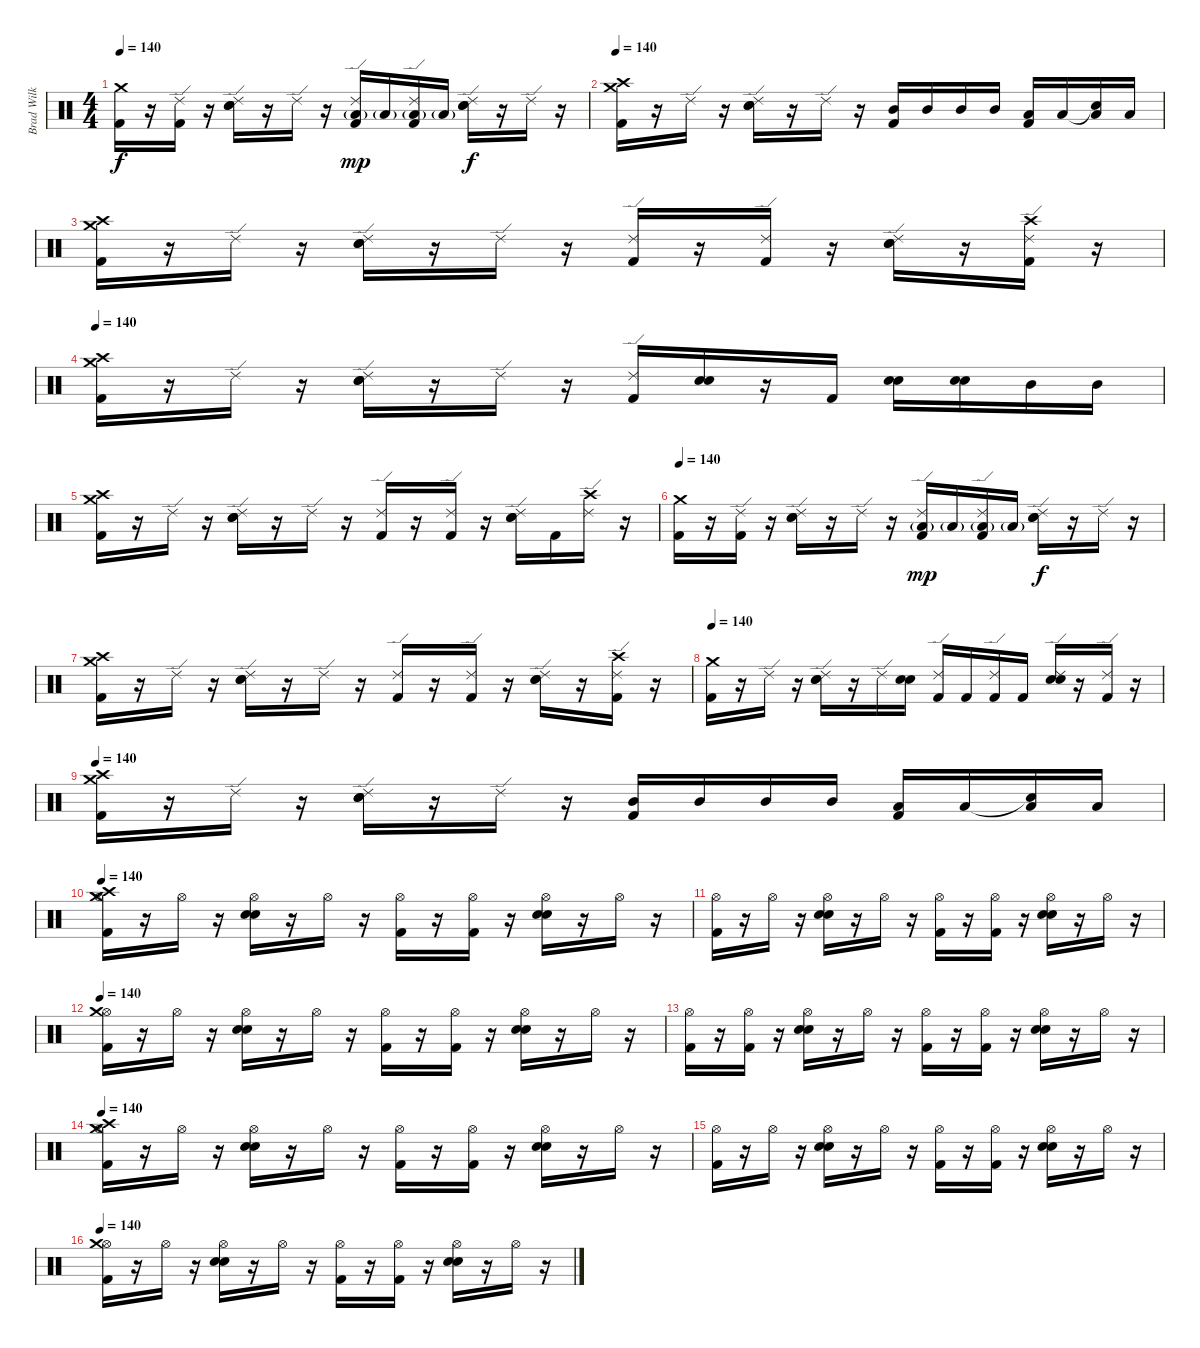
\track ("Brad Wilk" "Brad Wilk") {instrument percussion}
\staff {score}
\articulation defaults
\ts (4 4)
\tempo 140
\clef neutral
\ks c
("Crash medium (hit)" "Kick (hit) 2").16{dy f} r.16 ("Ride (edge) 2" "Kick (hit) 2").16 r.16 ("Ride (edge) 2" "Electric Snare (hit)" "Snare (hit) 2").16 r.16 "Ride (edge) 2".16 r.16 ("Ride (edge) 2" "Low Tom (hit)"{g} "Kick (hit) 2").16{dy mp} "Low Tom (hit)"{g}.16 ("Ride (edge) 2" "Low Tom (hit)"{g} "Kick (hit) 2").16 "Low Tom (hit)"{g}.16 ("Ride (edge) 2" "Electric Snare (hit)" "Snare (hit) 2").16{dy f} r.16 "Ride (edge) 2".16 r.16 |
\tempo 140
("Crash medium (hit)" "Crash high (hit)" "Kick (hit) 2").16 r.16 "Ride (edge) 2".16 r.16 ("Ride (edge) 2" "Electric Snare (hit)" "Snare (hit) 2").16 r.16 "Ride (edge) 2".16 r.16 ("Mid Tom (hit)" "Kick (hit) 2").16 "Mid Tom (hit)".16 "Mid Tom (hit)".16 "Mid Tom (hit)".16 ("Low Tom (hit)" "Kick (hit) 2").16 "Low Tom (hit)".16 ("Snare (hit)"{t} "Low Tom (hit)").16 "Low Tom (hit)".16 |
("Crash medium (hit)" "Crash high (hit)" "Kick (hit) 2").16 r.16 "Ride (edge) 2".16 r.16 ("Ride (edge) 2" "Electric Snare (hit)" "Snare (hit) 2").16 r.16 "Ride (edge) 2".16 r.16 ("Ride (edge) 2" "Kick (hit) 2").16 r.16 ("Ride (edge) 2" "Kick (hit) 2").16 r.16 ("Ride (edge) 2" "Electric Snare (hit)" "Snare (hit) 2").16 r.16 ("Ride (edge) 2" "Crash high (hit)" "Kick (hit) 2").16 r.16 |
\tempo 140
("Crash medium (hit)" "Crash high (hit)" "Kick (hit) 2").16 r.16 "Ride (edge) 2".16 r.16 ("Ride (edge) 2" "Electric Snare (hit)" "Snare (hit) 2").16 r.16 "Ride (edge) 2".16 r.16 ("Ride (edge) 2" "Kick (hit) 2").16 ("Electric Snare (hit)" "Snare (hit) 2").16 r.16 "Kick (hit) 2".16 ("Electric Snare (hit)" "Snare (hit) 2").16 ("Electric Snare (hit)" "Electric Snare (hit)").16 "Mid Tom (hit)".16 "Mid Tom (hit)".16 |
("Crash medium (hit)" "Crash high (hit)" "Kick (hit) 2").16 r.16 "Ride (edge) 2".16 r.16 ("Ride (edge) 2" "Electric Snare (hit)" "Snare (hit) 2").16 r.16 "Ride (edge) 2".16 r.16 ("Ride (edge) 2" "Kick (hit) 2").16 r.16 ("Ride (edge) 2" "Kick (hit) 2").16 r.16 ("Ride (edge) 2" "Electric Snare (hit)" "Snare (hit) 2").16 "Kick (hit) 2".16 ("Ride (edge) 2" "Crash high (hit)").16 r.16 |
\tempo 140
("Crash medium (hit)" "Kick (hit) 2").16 r.16 ("Ride (edge) 2" "Kick (hit) 2").16 r.16 ("Ride (edge) 2" "Electric Snare (hit)" "Snare (hit) 2").16 r.16 "Ride (edge) 2".16 r.16 ("Ride (edge) 2" "Low Tom (hit)"{g} "Kick (hit) 2").16{dy mp} "Low Tom (hit)"{g}.16 ("Ride (edge) 2" "Low Tom (hit)"{g} "Kick (hit) 2").16 "Low Tom (hit)"{g}.16 ("Ride (edge) 2" "Electric Snare (hit)" "Snare (hit) 2").16{dy f} r.16 "Ride (edge) 2".16 r.16 |
("Crash medium (hit)" "Crash high (hit)" "Kick (hit) 2").16 r.16 "Ride (edge) 2".16 r.16 ("Ride (edge) 2" "Electric Snare (hit)" "Snare (hit) 2").16 r.16 "Ride (edge) 2".16 r.16 ("Ride (edge) 2" "Kick (hit) 2").16 r.16 ("Ride (edge) 2" "Kick (hit) 2").16 r.16 ("Ride (edge) 2" "Electric Snare (hit)" "Snare (hit) 2").16 r.16 ("Ride (edge) 2" "Crash high (hit)" "Kick (hit) 2").16 r.16 |
\tempo 140
("Crash medium (hit)" "Kick (hit) 2").16 r.16 "Ride (edge) 2".16 r.16 ("Ride (edge) 2" "Electric Snare (hit)" "Snare (hit) 2").16 r.16 "Ride (edge) 2".16 ("Electric Snare (hit)" "Snare (hit) 2").16 ("Ride (edge) 2" "Kick (hit) 2").16 "Kick (hit) 2".16 ("Ride (edge) 2" "Kick (hit) 2").16 "Kick (hit) 2".16 ("Ride (edge) 2" "Electric Snare (hit)" "Snare (hit) 2").16 r.16 ("Ride (edge) 2" "Kick (hit) 2").16 r.16 |
\tempo 140
("Crash medium (hit)" "Crash high (hit)" "Kick (hit) 2").16 r.16 "Ride (edge) 2".16 r.16 ("Ride (edge) 2" "Electric Snare (hit)" "Snare (hit) 2").16 r.16 "Ride (edge) 2".16 r.16 ("Mid Tom (hit)" "Kick (hit) 2").16 "Mid Tom (hit)".16 "Mid Tom (hit)".16 "Mid Tom (hit)".16 ("Low Tom (hit)" "Kick (hit) 2").16 "Low Tom (hit)".16 ("Snare (hit)"{t} "Low Tom (hit)").16 "Low Tom (hit)".16 |
\tempo 140
("Hi-Hat (open)" "Crash medium (hit)" "Crash high (hit)" "Kick (hit) 2").16 r.16 "Hi-Hat (open)".16 r.16 ("Hi-Hat (open)" "Electric Snare (hit)" "Snare (hit) 2").16 r.16 "Hi-Hat (open)".16 r.16 ("Hi-Hat (open)" "Kick (hit) 2").16 r.16 ("Hi-Hat (open)" "Kick (hit) 2").16 r.16 ("Hi-Hat (open)" "Electric Snare (hit)" "Snare (hit) 2").16 r.16 "Hi-Hat (open)".16 r.16 |
("Hi-Hat (open)" "Kick (hit) 2").16 r.16 "Hi-Hat (open)".16 r.16 ("Hi-Hat (open)" "Electric Snare (hit)" "Snare (hit) 2").16 r.16 "Hi-Hat (open)".16 r.16 ("Hi-Hat (open)" "Kick (hit) 2").16 r.16 ("Hi-Hat (open)" "Kick (hit) 2").16 r.16 ("Hi-Hat (open)" "Electric Snare (hit)" "Snare (hit) 2").16 r.16 "Hi-Hat (open)".16 r.16 |
\tempo 140
("Hi-Hat (open)" "Crash medium (hit)" "Kick (hit) 2").16 r.16 "Hi-Hat (open)".16 r.16 ("Hi-Hat (open)" "Electric Snare (hit)" "Snare (hit) 2").16 r.16 "Hi-Hat (open)".16 r.16 ("Hi-Hat (open)" "Kick (hit) 2").16 r.16 ("Hi-Hat (open)" "Kick (hit) 2").16 r.16 ("Hi-Hat (open)" "Electric Snare (hit)" "Snare (hit) 2").16 r.16 "Hi-Hat (open)".16 r.16 |
("Hi-Hat (open)" "Kick (hit) 2").16 r.16 ("Hi-Hat (open)" "Kick (hit) 2").16 r.16 ("Hi-Hat (open)" "Electric Snare (hit)" "Snare (hit) 2").16 r.16 "Hi-Hat (open)".16 r.16 ("Hi-Hat (open)" "Kick (hit) 2").16 r.16 ("Hi-Hat (open)" "Kick (hit) 2").16 r.16 ("Hi-Hat (open)" "Electric Snare (hit)" "Snare (hit) 2").16 r.16 "Hi-Hat (open)".16 r.16 |
\tempo 140
("Hi-Hat (open)" "Crash medium (hit)" "Crash high (hit)" "Kick (hit) 2").16 r.16 "Hi-Hat (open)".16 r.16 ("Hi-Hat (open)" "Electric Snare (hit)" "Snare (hit) 2").16 r.16 "Hi-Hat (open)".16 r.16 ("Hi-Hat (open)" "Kick (hit) 2").16 r.16 ("Hi-Hat (open)" "Kick (hit) 2").16 r.16 ("Hi-Hat (open)" "Electric Snare (hit)" "Snare (hit) 2").16 r.16 "Hi-Hat (open)".16 r.16 |
("Hi-Hat (open)" "Kick (hit) 2").16 r.16 "Hi-Hat (open)".16 r.16 ("Hi-Hat (open)" "Electric Snare (hit)" "Snare (hit) 2").16 r.16 "Hi-Hat (open)".16 r.16 ("Hi-Hat (open)" "Kick (hit) 2").16 r.16 ("Hi-Hat (open)" "Kick (hit) 2").16 r.16 ("Hi-Hat (open)" "Electric Snare (hit)" "Snare (hit) 2").16 r.16 "Hi-Hat (open)".16 r.16 |
\tempo 140
("Hi-Hat (open)" "Crash medium (hit)" "Kick (hit) 2").16 r.16 "Hi-Hat (open)".16 r.16 ("Hi-Hat (open)" "Electric Snare (hit)" "Snare (hit) 2").16 r.16 "Hi-Hat (open)".16 r.16 ("Hi-Hat (open)" "Kick (hit) 2").16 r.16 ("Hi-Hat (open)" "Kick (hit) 2").16 r.16 ("Hi-Hat (open)" "Electric Snare (hit)" "Snare (hit) 2").16 r.16 "Hi-Hat (open)".16 r.16
